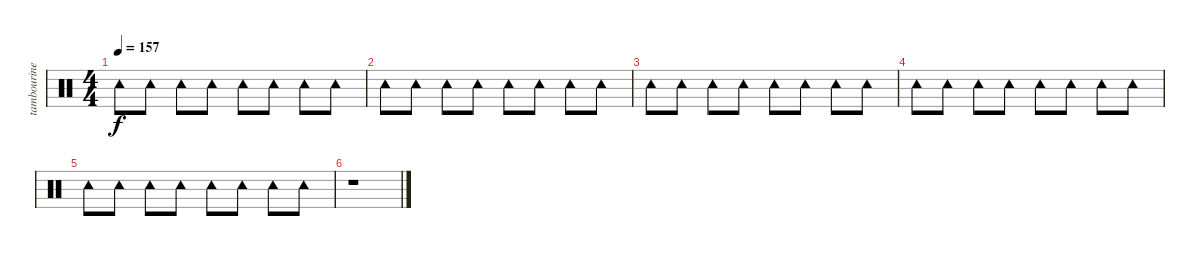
\track ("tambourine" "tambourine") {instrument percussion}
\staff {score}
\articulation defaults
\ts (4 4)
\tempo 157
\clef neutral
\ks c "Tambourine (hit)".8{dy f} "Tambourine (hit)".8 "Tambourine (hit)".8 "Tambourine (hit)".8 "Tambourine (hit)".8 "Tambourine (hit)".8 "Tambourine (hit)".8 "Tambourine (hit)".8
|
"Tambourine (hit)".8 "Tambourine (hit)".8 "Tambourine (hit)".8 "Tambourine (hit)".8 "Tambourine (hit)".8 "Tambourine (hit)".8 "Tambourine (hit)".8 "Tambourine (hit)".8 |
"Tambourine (hit)".8 "Tambourine (hit)".8 "Tambourine (hit)".8 "Tambourine (hit)".8 "Tambourine (hit)".8 "Tambourine (hit)".8 "Tambourine (hit)".8 "Tambourine (hit)".8 |
"Tambourine (hit)".8 "Tambourine (hit)".8 "Tambourine (hit)".8 "Tambourine (hit)".8 "Tambourine (hit)".8 "Tambourine (hit)".8 "Tambourine (hit)".8 "Tambourine (hit)".8 |
"Tambourine (hit)".8 "Tambourine (hit)".8 "Tambourine (hit)".8 "Tambourine (hit)".8 "Tambourine (hit)".8 "Tambourine (hit)".8 "Tambourine (hit)".8 "Tambourine (hit)".8 |
r.1
